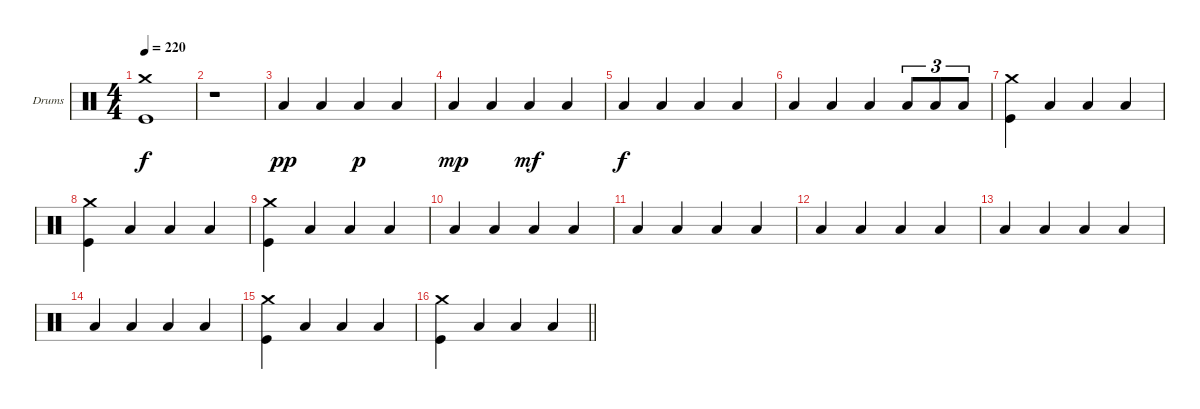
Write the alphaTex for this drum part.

\bracketExtendMode groupsimilarinstruments
\firstSystemTrackNameOrientation horizontal
\otherSystemsTrackNameOrientation horizontal
\track ("Stefan Schwarzmann" "Drums") {instrument percussion}
\staff {score}
\articulation defaults
\ts (4 4)
\tempo 220
\clef neutral
\ks c
("Kick (hit)" "Crash medium (hit)").1{dy f} |
r.1 |
"Low Tom (hit)".4{dy pp} "Low Tom (hit)".4 "Low Tom (hit)".4{dy p} "Low Tom (hit)".4 |
"Low Tom (hit)".4{dy mp} "Low Tom (hit)".4 "Low Tom (hit)".4{dy mf} "Low Tom (hit)".4 |
"Low Tom (hit)".4{dy f} "Low Tom (hit)".4 "Low Tom (hit)".4 "Low Tom (hit)".4 |
"Low Tom (hit)".4 "Low Tom (hit)".4 "Low Tom (hit)".4 "Low Tom (hit)".8{tu (3 2)} "Low Tom (hit)".8{tu (3 2)} "Low Tom (hit)".8{tu (3 2)} |
("Kick (hit)" "Crash medium (hit)").4 "Low Tom (hit)".4 "Low Tom (hit)".4 "Low Tom (hit)".4 |
("Kick (hit)" "Crash medium (hit)").4 "Low Tom (hit)".4 "Low Tom (hit)".4 "Low Tom (hit)".4 |
("Kick (hit)" "Crash medium (hit)").4 "Low Tom (hit)".4 "Low Tom (hit)".4 "Low Tom (hit)".4 |
"Low Tom (hit)".4 "Low Tom (hit)".4 "Low Tom (hit)".4 "Low Tom (hit)".4 |
"Low Tom (hit)".4 "Low Tom (hit)".4 "Low Tom (hit)".4 "Low Tom (hit)".4 |
"Low Tom (hit)".4 "Low Tom (hit)".4 "Low Tom (hit)".4 "Low Tom (hit)".4 |
"Low Tom (hit)".4 "Low Tom (hit)".4 "Low Tom (hit)".4 "Low Tom (hit)".4 |
"Low Tom (hit)".4 "Low Tom (hit)".4 "Low Tom (hit)".4 "Low Tom (hit)".4 |
("Kick (hit)" "Crash medium (hit)").4 "Low Tom (hit)".4 "Low Tom (hit)".4 "Low Tom (hit)".4 |
\barLineRight lightlight
("Kick (hit)" "Crash medium (hit)").4 "Low Tom (hit)".4 "Low Tom (hit)".4 "Low Tom (hit)".4
